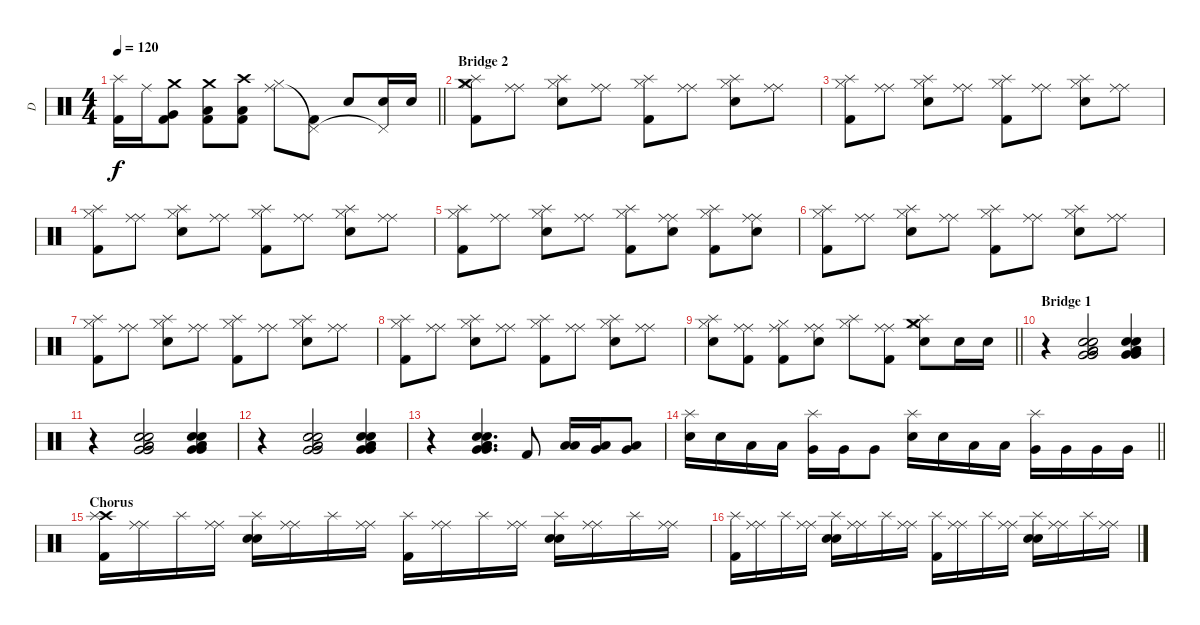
\track ("D" "D") {instrument percussion}
\staff {score}
\articulation defaults
\ts (4 4)
\tempo 120
\clef neutral
\barLineRight lightlight
\ks c
("Kick (hit) 2" "Splash (hit)").16{dy f} "Ride (middle)".16 ("Crash medium (hit)" "Very Low Tom (hit)" "Kick (hit) 2").8 ("Crash medium (hit)" "Low Tom (hit)" "Kick (hit) 2").8 ("Crash high (hit)" "Low Tom (hit)" "Kick (hit) 2").8 ("Hi-Hat (closed)" "Ride (middle)").8 ("Kick (hit) 2" "Pedal Hi-Hat (hit)"{t}).8 "Electric Snare (hit)".8 ("Electric Snare (hit)" "Pedal Hi-Hat (hit)"{t}).16 "Electric Snare (hit)".16 |
\section ("" "Bridge 2")
("Crash medium (hit)" "Kick (hit) 2" "Splash (hit)" "Hi-Hat (closed)").8 ("Ride (middle)" "Ride (middle)").8 ("Electric Snare (hit)" "Splash (hit)" "Hi-Hat (closed)").8 ("Ride (middle)" "Ride (middle)").8 ("Kick (hit) 2" "Splash (hit)" "Hi-Hat (closed)").8 ("Ride (middle)" "Ride (middle)").8 ("Electric Snare (hit)" "Splash (hit)" "Hi-Hat (closed)").8 ("Ride (middle)" "Ride (middle)").8 |
("Kick (hit) 2" "Splash (hit)" "Hi-Hat (closed)").8 ("Ride (middle)" "Ride (middle)").8 ("Electric Snare (hit)" "Splash (hit)" "Hi-Hat (closed)").8 ("Ride (middle)" "Ride (middle)").8 ("Kick (hit) 2" "Splash (hit)" "Hi-Hat (closed)").8 ("Ride (middle)" "Ride (middle)").8 ("Electric Snare (hit)" "Splash (hit)" "Hi-Hat (closed)").8 ("Ride (middle)" "Ride (middle)").8 |
("Kick (hit) 2" "Splash (hit)" "Hi-Hat (closed)").8 ("Ride (middle)" "Ride (middle)").8 ("Electric Snare (hit)" "Splash (hit)" "Hi-Hat (closed)").8 ("Ride (middle)" "Ride (middle)").8 ("Kick (hit) 2" "Splash (hit)" "Hi-Hat (closed)").8 ("Ride (middle)" "Ride (middle)").8 ("Electric Snare (hit)" "Splash (hit)" "Hi-Hat (closed)").8 ("Ride (middle)" "Ride (middle)").8 |
("Kick (hit) 2" "Splash (hit)" "Hi-Hat (closed)").8 ("Ride (middle)" "Ride (middle)").8 ("Electric Snare (hit)" "Splash (hit)" "Hi-Hat (closed)").8 ("Ride (middle)" "Ride (middle)").8 ("Kick (hit) 2" "Splash (hit)" "Hi-Hat (closed)").8 ("Electric Snare (hit)" "Ride (middle)" "Ride (middle)").8 ("Kick (hit) 2" "Splash (hit)" "Hi-Hat (closed)").8 ("Electric Snare (hit)" "Ride (middle)" "Ride (middle)").8 |
("Kick (hit) 2" "Splash (hit)" "Hi-Hat (closed)").8 ("Ride (middle)" "Ride (middle)").8 ("Electric Snare (hit)" "Splash (hit)" "Hi-Hat (closed)").8 ("Ride (middle)" "Ride (middle)").8 ("Kick (hit) 2" "Splash (hit)" "Hi-Hat (closed)").8 ("Ride (middle)" "Ride (middle)").8 ("Electric Snare (hit)" "Splash (hit)" "Hi-Hat (closed)").8 ("Ride (middle)" "Ride (middle)").8 |
("Kick (hit) 2" "Splash (hit)" "Hi-Hat (closed)").8 ("Ride (middle)" "Ride (middle)").8 ("Electric Snare (hit)" "Splash (hit)" "Hi-Hat (closed)").8 ("Ride (middle)" "Ride (middle)").8 ("Kick (hit) 2" "Splash (hit)" "Hi-Hat (closed)").8 ("Ride (middle)" "Ride (middle)").8 ("Electric Snare (hit)" "Splash (hit)" "Hi-Hat (closed)").8 ("Ride (middle)" "Ride (middle)").8 |
("Kick (hit) 2" "Splash (hit)" "Hi-Hat (closed)").8 ("Ride (middle)" "Ride (middle)").8 ("Electric Snare (hit)" "Splash (hit)" "Hi-Hat (closed)").8 ("Ride (middle)" "Ride (middle)").8 ("Kick (hit) 2" "Splash (hit)" "Hi-Hat (closed)").8 ("Ride (middle)" "Ride (middle)").8 ("Electric Snare (hit)" "Splash (hit)" "Hi-Hat (closed)").8 ("Ride (middle)" "Ride (middle)").8 |
\barLineRight lightlight
("Electric Snare (hit)" "Splash (hit)" "Hi-Hat (closed)").8 ("Kick (hit) 2" "Ride (middle)" "Ride (middle)").8 ("Kick (hit) 2" "Ride (middle)" "Hi-Hat (closed)").8 ("Electric Snare (hit)" "Ride (middle)" "Ride (middle)").8 ("Splash (hit)" "Hi-Hat (closed)").8 ("Kick (hit) 2" "Ride (middle)" "Ride (middle)").8 ("Crash medium (hit)" "Electric Snare (hit)" "Splash (hit)" "Hi-Hat (closed)").8 "Electric Snare (hit)".16 "Electric Snare (hit)".16 |
\section ("" "Bridge 1")
r.4 ("Low Tom (hit)" "Low Tom (hit)" "Very Low Tom (hit)" "Very Low Tom (hit)" "Electric Snare (hit)" "Electric Snare (hit)").2 ("Low Tom (hit)" "Low Tom (hit)" "Very Low Tom (hit)" "Very Low Tom (hit)" "Electric Snare (hit)" "Electric Snare (hit)").4 |
r.4 ("Low Tom (hit)" "Low Tom (hit)" "Very Low Tom (hit)" "Very Low Tom (hit)" "Electric Snare (hit)" "Electric Snare (hit)").2 ("Low Tom (hit)" "Low Tom (hit)" "Very Low Tom (hit)" "Very Low Tom (hit)" "Electric Snare (hit)" "Electric Snare (hit)").4 |
r.4 ("Low Tom (hit)" "Low Tom (hit)" "Very Low Tom (hit)" "Very Low Tom (hit)" "Electric Snare (hit)" "Electric Snare (hit)").2 ("Low Tom (hit)" "Low Tom (hit)" "Very Low Tom (hit)" "Very Low Tom (hit)" "Electric Snare (hit)" "Electric Snare (hit)").4 |
r.4 ("Low Tom (hit)" "Low Tom (hit)" "Very Low Tom (hit)" "Very Low Tom (hit)" "Electric Snare (hit)" "Electric Snare (hit)").4{d} "Kick (hit) 2".8 ("Low Tom (hit)" "Low Floor Tom (hit)").16 ("Very Low Tom (hit)" "Low Floor Tom (hit)").16 ("Very Low Tom (hit)" "Low Floor Tom (hit)").8 |
\barLineRight lightlight
("Electric Snare (hit)" "Splash (hit)").16 "Electric Snare (hit)".16 "Low Tom (hit)".16 "Low Tom (hit)".16 ("Very Low Tom (hit)" "Splash (hit)").16 "Very Low Tom (hit)".16 "Very Low Tom (hit)".8 ("Electric Snare (hit)" "Splash (hit)").16 "Electric Snare (hit)".16 "Low Tom (hit)".16 "Low Tom (hit)".16 ("Very Low Tom (hit)" "Splash (hit)").16 "Very Low Tom (hit)".16 "Very Low Tom (hit)".16 "Very Low Tom (hit)".16 |
\section ("" "Chorus")
("Crash high (hit)" "Kick (hit) 2" "Splash (hit)").16 ("Ride (middle)" "Ride (middle)").16 "Splash (hit)".16 ("Ride (middle)" "Ride (middle)").16 ("Electric Snare (hit)" "Electric Snare (hit)" "Splash (hit)").16 ("Ride (middle)" "Ride (middle)").16 "Splash (hit)".16 ("Ride (middle)" "Ride (middle)").16 ("Kick (hit) 2" "Splash (hit)").16 ("Ride (middle)" "Ride (middle)").16 "Splash (hit)".16 ("Ride (middle)" "Ride (middle)").16 ("Electric Snare (hit)" "Electric Snare (hit)" "Splash (hit)").16 ("Ride (middle)" "Ride (middle)").16 "Splash (hit)".16 ("Ride (middle)" "Ride (middle)").16 |
("Kick (hit) 2" "Splash (hit)").16 ("Ride (middle)" "Ride (middle)").16 "Splash (hit)".16 ("Ride (middle)" "Ride (middle)").16 ("Electric Snare (hit)" "Electric Snare (hit)" "Splash (hit)").16 ("Ride (middle)" "Ride (middle)").16 "Splash (hit)".16 ("Ride (middle)" "Ride (middle)").16 ("Kick (hit) 2" "Splash (hit)").16 ("Ride (middle)" "Ride (middle)").16 "Splash (hit)".16 ("Ride (middle)" "Ride (middle)").16 ("Electric Snare (hit)" "Electric Snare (hit)" "Splash (hit)").16 ("Ride (middle)" "Ride (middle)").16 "Splash (hit)".16 ("Ride (middle)" "Ride (middle)").16
